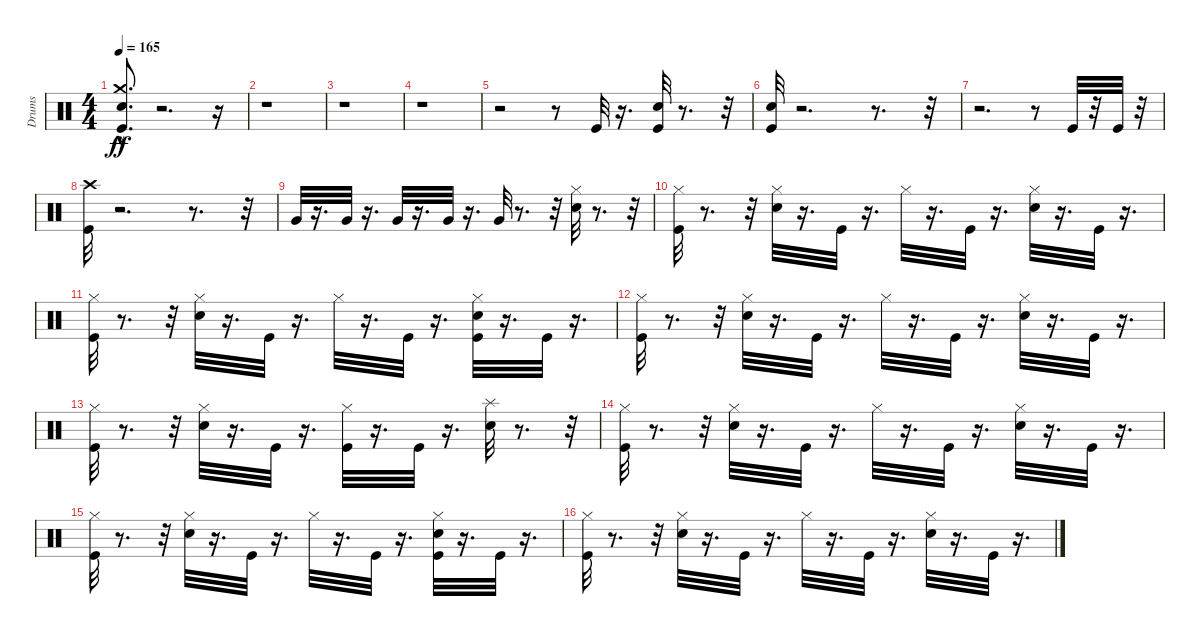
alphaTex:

\track ("Drums" "Drums") {instrument percussion}
\staff {score}
\articulation defaults
\ts (4 4)
\tempo 165
\clef neutral
\ks c
("Kick (hit)" "Crash medium (hit)"{hac} "Electric Snare (hit)").8{d dy ff} r.2{d} r.16 |
r.1 |
r.1 |
r.1 |
r.2 r.8 "Kick (hit)".32 r.16{d} ("Electric Snare (hit)" "Kick (hit)").32 r.8{d} r.32 |
("Electric Snare (hit)" "Kick (hit)").32 r.2{d} r.8{d} r.32 |
r.2{d} r.8 "Kick (hit)".32 r.32 "Kick (hit)".32 r.32 |
("Crash high (hit)" "Kick (hit)").32 r.2{d} r.8{d} r.32 |
"Very Low Tom (hit)".32 r.16{d} "Very Low Tom (hit)".32 r.16{d} "Very Low Tom (hit)".32 r.16{d} "Very Low Tom (hit)".32 r.16{d} "Very Low Tom (hit)".32 r.8{d} r.32 ("Electric Snare (hit)" "Hi-Hat (closed)").32 r.8{d} r.32 |
("Kick (hit)" "Hi-Hat (closed)").32 r.8{d} r.32 ("Hi-Hat (closed)" "Electric Snare (hit)").32 r.16{d} "Kick (hit)".32 r.16{d} "Hi-Hat (closed)".32 r.16{d} "Kick (hit)".32 r.16{d} ("Hi-Hat (closed)" "Electric Snare (hit)").32 r.16{d} "Kick (hit)".32 r.16{d} |
("Hi-Hat (closed)" "Kick (hit)").32 r.8{d} r.32 ("Electric Snare (hit)" "Hi-Hat (closed)").32 r.16{d} "Kick (hit)".32 r.16{d} "Hi-Hat (closed)".32 r.16{d} "Kick (hit)".32 r.16{d} ("Kick (hit)" "Hi-Hat (closed)" "Electric Snare (hit)").32 r.16{d} "Kick (hit)".32 r.16{d} |
("Hi-Hat (closed)" "Kick (hit)").32 r.8{d} r.32 ("Hi-Hat (closed)" "Electric Snare (hit)").32 r.16{d} "Kick (hit)".32 r.16{d} "Hi-Hat (closed)".32 r.16{d} "Kick (hit)".32 r.16{d} ("Hi-Hat (closed)" "Electric Snare (hit)").32 r.16{d} "Kick (hit)".32 r.16{d} |
("Hi-Hat (closed)" "Kick (hit)").32 r.8{d} r.32 ("Electric Snare (hit)" "Hi-Hat (closed)").32 r.16{d} "Kick (hit)".32 r.16{d} ("Hi-Hat (closed)" "Kick (hit)").32 r.16{d} "Kick (hit)".32 r.16{d} ("Electric Snare (hit)" "Splash (hit)").32 r.8{d} r.32 |
("Hi-Hat (closed)" "Kick (hit)").32 r.8{d} r.32 ("Electric Snare (hit)" "Hi-Hat (closed)").32 r.16{d} "Kick (hit)".32 r.16{d} "Hi-Hat (closed)".32 r.16{d} "Kick (hit)".32 r.16{d} ("Hi-Hat (closed)" "Electric Snare (hit)").32 r.16{d} "Kick (hit)".32 r.16{d} |
("Hi-Hat (closed)" "Kick (hit)").32 r.8{d} r.32 ("Electric Snare (hit)" "Hi-Hat (closed)").32 r.16{d} "Kick (hit)".32 r.16{d} "Hi-Hat (closed)".32 r.16{d} "Kick (hit)".32 r.16{d} ("Hi-Hat (closed)" "Kick (hit)" "Electric Snare (hit)").32 r.16{d} "Kick (hit)".32 r.16{d} |
("Hi-Hat (closed)" "Kick (hit)").32 r.8{d} r.32 ("Hi-Hat (closed)" "Electric Snare (hit)").32 r.16{d} "Kick (hit)".32 r.16{d} "Hi-Hat (closed)".32 r.16{d} "Kick (hit)".32 r.16{d} ("Hi-Hat (closed)" "Electric Snare (hit)").32 r.16{d} "Kick (hit)".32 r.16{d}
